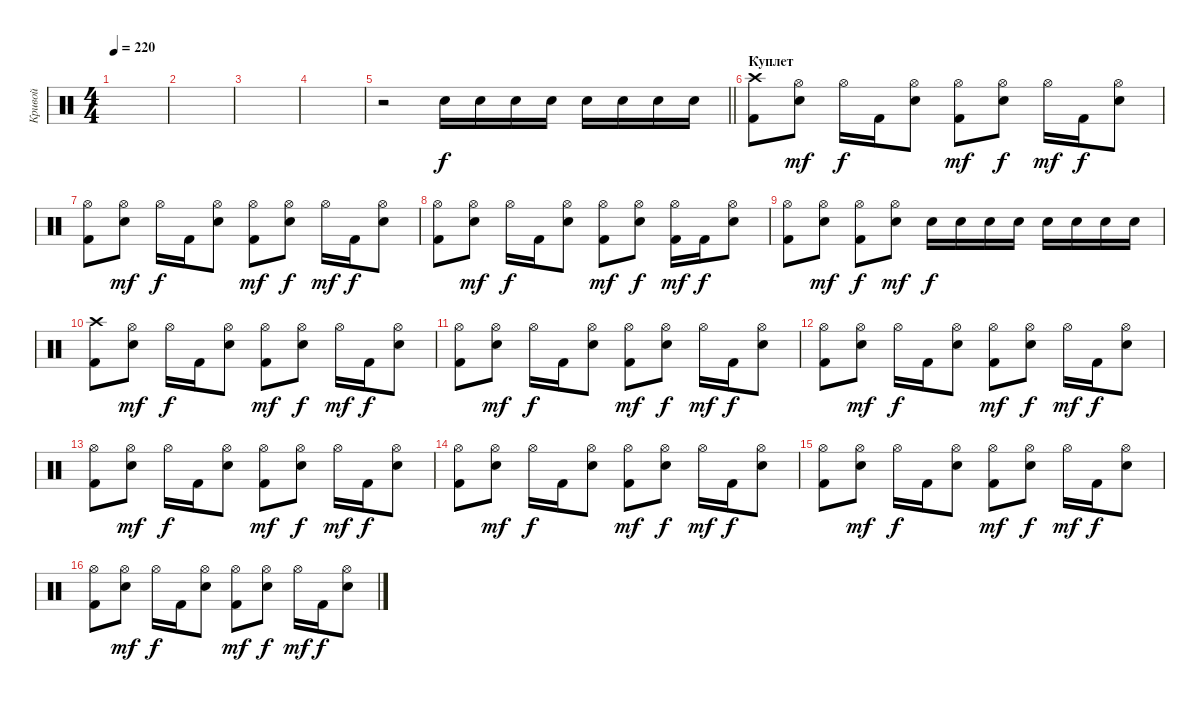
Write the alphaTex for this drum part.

\track ("Кривой" "Кривой") {instrument percussion}
\staff {score}
\articulation defaults
\ts (4 4)
\tempo 220
\clef neutral
\ks c
|
|
|
|
\barLineRight lightlight
r.2 "Snare (hit) 2".16 "Snare (hit) 2".16 "Snare (hit) 2".16 "Snare (hit) 2".16 "Snare (hit) 2".16 "Snare (hit) 2".16 "Snare (hit) 2".16 "Snare (hit) 2".16 |
\section ("" "Куплет")
("Crash high (hit)" "Kick (hit) 2").8 ("Hi-Hat (open)" "Snare (hit) 2").8{dy mf} "Hi-Hat (open)".16{dy f} "Kick (hit) 2".16 ("Hi-Hat (open)" "Snare (hit) 2").8 ("Hi-Hat (open)" "Kick (hit) 2").8{dy mf} ("Hi-Hat (open)" "Snare (hit) 2").8{dy f} "Hi-Hat (open)".16{dy mf} "Kick (hit) 2".16{dy f} ("Hi-Hat (open)" "Snare (hit) 2").8 |
("Hi-Hat (open)" "Kick (hit) 2").8 ("Hi-Hat (open)" "Snare (hit) 2").8{dy mf} "Hi-Hat (open)".16{dy f} "Kick (hit) 2".16 ("Hi-Hat (open)" "Snare (hit) 2").8 ("Hi-Hat (open)" "Kick (hit) 2").8{dy mf} ("Hi-Hat (open)" "Snare (hit) 2").8{dy f} "Hi-Hat (open)".16{dy mf} "Kick (hit) 2".16{dy f} ("Hi-Hat (open)" "Snare (hit) 2").8 |
("Hi-Hat (open)" "Kick (hit) 2").8 ("Hi-Hat (open)" "Snare (hit) 2").8{dy mf} "Hi-Hat (open)".16{dy f} "Kick (hit) 2".16 ("Hi-Hat (open)" "Snare (hit) 2").8 ("Hi-Hat (open)" "Kick (hit) 2").8{dy mf} ("Hi-Hat (open)" "Snare (hit) 2").8{dy f} ("Hi-Hat (open)" "Kick (hit) 2").16{dy mf} "Kick (hit) 2".16{dy f} ("Hi-Hat (open)" "Snare (hit) 2").8 |
("Hi-Hat (open)" "Kick (hit) 2").8 ("Hi-Hat (open)" "Snare (hit) 2").8{dy mf} ("Hi-Hat (open)" "Kick (hit) 2").8{dy f} ("Hi-Hat (open)" "Snare (hit) 2").8{dy mf} "Snare (hit) 2".16{dy f} "Snare (hit) 2".16 "Snare (hit) 2".16 "Snare (hit) 2".16 "Snare (hit) 2".16 "Snare (hit) 2".16 "Snare (hit) 2".16 "Snare (hit) 2".16 |
("Crash high (hit)" "Kick (hit) 2").8 ("Hi-Hat (open)" "Snare (hit) 2").8{dy mf} "Hi-Hat (open)".16{dy f} "Kick (hit) 2".16 ("Hi-Hat (open)" "Snare (hit) 2").8 ("Hi-Hat (open)" "Kick (hit) 2").8{dy mf} ("Hi-Hat (open)" "Snare (hit) 2").8{dy f} "Hi-Hat (open)".16{dy mf} "Kick (hit) 2".16{dy f} ("Hi-Hat (open)" "Snare (hit) 2").8 |
("Hi-Hat (open)" "Kick (hit) 2").8 ("Hi-Hat (open)" "Snare (hit) 2").8{dy mf} "Hi-Hat (open)".16{dy f} "Kick (hit) 2".16 ("Hi-Hat (open)" "Snare (hit) 2").8 ("Hi-Hat (open)" "Kick (hit) 2").8{dy mf} ("Hi-Hat (open)" "Snare (hit) 2").8{dy f} "Hi-Hat (open)".16{dy mf} "Kick (hit) 2".16{dy f} ("Hi-Hat (open)" "Snare (hit) 2").8 |
("Hi-Hat (open)" "Kick (hit) 2").8 ("Hi-Hat (open)" "Snare (hit) 2").8{dy mf} "Hi-Hat (open)".16{dy f} "Kick (hit) 2".16 ("Hi-Hat (open)" "Snare (hit) 2").8 ("Hi-Hat (open)" "Kick (hit) 2").8{dy mf} ("Hi-Hat (open)" "Snare (hit) 2").8{dy f} "Hi-Hat (open)".16{dy mf} "Kick (hit) 2".16{dy f} ("Hi-Hat (open)" "Snare (hit) 2").8 |
("Hi-Hat (open)" "Kick (hit) 2").8 ("Hi-Hat (open)" "Snare (hit) 2").8{dy mf} "Hi-Hat (open)".16{dy f} "Kick (hit) 2".16 ("Hi-Hat (open)" "Snare (hit) 2").8 ("Hi-Hat (open)" "Kick (hit) 2").8{dy mf} ("Hi-Hat (open)" "Snare (hit) 2").8{dy f} "Hi-Hat (open)".16{dy mf} "Kick (hit) 2".16{dy f} ("Hi-Hat (open)" "Snare (hit) 2").8 |
("Hi-Hat (open)" "Kick (hit) 2").8 ("Hi-Hat (open)" "Snare (hit) 2").8{dy mf} "Hi-Hat (open)".16{dy f} "Kick (hit) 2".16 ("Hi-Hat (open)" "Snare (hit) 2").8 ("Hi-Hat (open)" "Kick (hit) 2").8{dy mf} ("Hi-Hat (open)" "Snare (hit) 2").8{dy f} "Hi-Hat (open)".16{dy mf} "Kick (hit) 2".16{dy f} ("Hi-Hat (open)" "Snare (hit) 2").8 |
("Hi-Hat (open)" "Kick (hit) 2").8 ("Hi-Hat (open)" "Snare (hit) 2").8{dy mf} "Hi-Hat (open)".16{dy f} "Kick (hit) 2".16 ("Hi-Hat (open)" "Snare (hit) 2").8 ("Hi-Hat (open)" "Kick (hit) 2").8{dy mf} ("Hi-Hat (open)" "Snare (hit) 2").8{dy f} "Hi-Hat (open)".16{dy mf} "Kick (hit) 2".16{dy f} ("Hi-Hat (open)" "Snare (hit) 2").8 |
("Hi-Hat (open)" "Kick (hit) 2").8 ("Hi-Hat (open)" "Snare (hit) 2").8{dy mf} "Hi-Hat (open)".16{dy f} "Kick (hit) 2".16 ("Hi-Hat (open)" "Snare (hit) 2").8 ("Hi-Hat (open)" "Kick (hit) 2").8{dy mf} ("Hi-Hat (open)" "Snare (hit) 2").8{dy f} "Hi-Hat (open)".16{dy mf} "Kick (hit) 2".16{dy f} ("Hi-Hat (open)" "Snare (hit) 2").8
